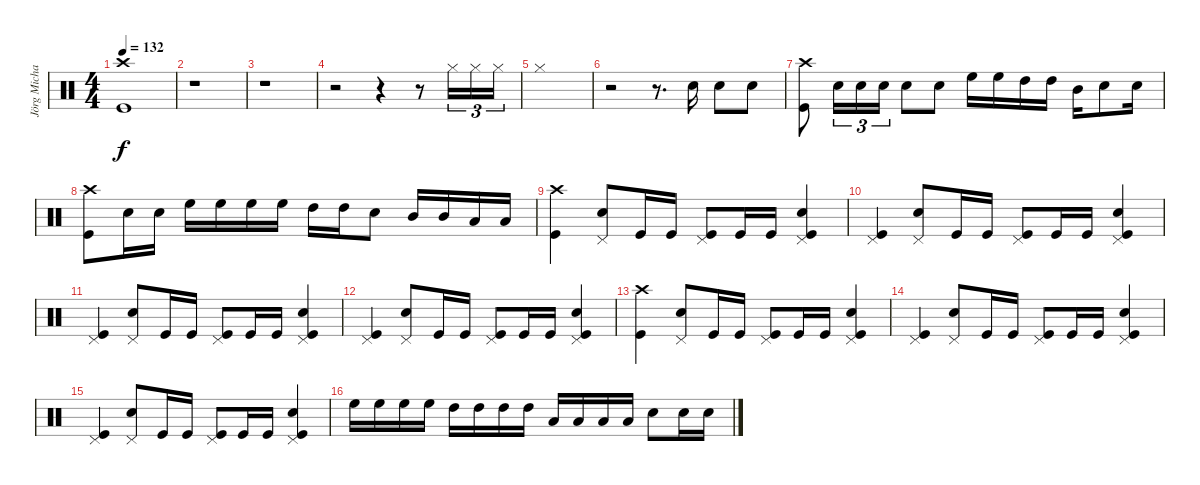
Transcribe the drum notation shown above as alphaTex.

\track ("Jörg Michael (Drums)" "Jörg Micha") {instrument percussion}
\staff {score}
\articulation defaults
\ts (4 4)
\tempo 132
\clef neutral
\ks c
("Crash high (hit)" "Kick (hit)").1{dy f} |
r.1 |
r.1 |
r.2 r.4 r.8 "Hi-Hat (closed)".16{tu (3 2)} "Hi-Hat (closed)".16{tu (3 2)} "Hi-Hat (closed)".16{tu (3 2)} |
"Hi-Hat (closed)".1 |
r.2 r.8{d} "Snare (hit) 2".16 "Snare (hit) 2".8 "Snare (hit) 2".8 |
("Crash high (hit)" "Kick (hit)").8 "Snare (hit) 2".16{tu (3 2)} "Snare (hit) 2".16{tu (3 2)} "Snare (hit) 2".16{tu (3 2)} "Snare (hit) 2".8 "Snare (hit) 2".8 "High Floor Tom (hit)".16 "High Floor Tom (hit)".16 "High Tom (hit)".16 "High Tom (hit)".16 "Mid Tom (hit)".16 "Snare (hit) 2".8 "Snare (hit) 2".16 |
("Crash high (hit)" "Kick (hit)").8 "Snare (hit) 2".16 "Snare (hit) 2".16 "High Floor Tom (hit)".16 "High Floor Tom (hit)".16 "High Floor Tom (hit)".16 "High Floor Tom (hit)".16 "High Tom (hit)".16 "High Tom (hit)".16 "Snare (hit) 2".8 "Mid Tom (hit)".16 "Mid Tom (hit)".16 "Low Tom (hit)".16 "Low Tom (hit)".16 |
("Crash high (hit)" "Kick (hit)").4 ("Pedal Hi-Hat (hit)" "Snare (hit) 2").8 "Kick (hit)".16 "Kick (hit)".16 ("Pedal Hi-Hat (hit)" "Kick (hit)").8 "Kick (hit)".16 "Kick (hit)".16 ("Pedal Hi-Hat (hit)" "Kick (hit)" "Snare (hit) 2").4 |
("Pedal Hi-Hat (hit)" "Kick (hit)").4 ("Pedal Hi-Hat (hit)" "Snare (hit) 2").8 "Kick (hit)".16 "Kick (hit)".16 ("Pedal Hi-Hat (hit)" "Kick (hit)").8 "Kick (hit)".16 "Kick (hit)".16 ("Pedal Hi-Hat (hit)" "Kick (hit)" "Snare (hit) 2").4 |
("Pedal Hi-Hat (hit)" "Kick (hit)").4 ("Pedal Hi-Hat (hit)" "Snare (hit) 2").8 "Kick (hit)".16 "Kick (hit)".16 ("Pedal Hi-Hat (hit)" "Kick (hit)").8 "Kick (hit)".16 "Kick (hit)".16 ("Pedal Hi-Hat (hit)" "Kick (hit)" "Snare (hit) 2").4 |
("Pedal Hi-Hat (hit)" "Kick (hit)").4 ("Pedal Hi-Hat (hit)" "Snare (hit) 2").8 "Kick (hit)".16 "Kick (hit)".16 ("Pedal Hi-Hat (hit)" "Kick (hit)").8 "Kick (hit)".16 "Kick (hit)".16 ("Pedal Hi-Hat (hit)" "Kick (hit)" "Snare (hit) 2").4 |
("Crash high (hit)" "Kick (hit)").4 ("Pedal Hi-Hat (hit)" "Snare (hit) 2").8 "Kick (hit)".16 "Kick (hit)".16 ("Pedal Hi-Hat (hit)" "Kick (hit)").8 "Kick (hit)".16 "Kick (hit)".16 ("Pedal Hi-Hat (hit)" "Kick (hit)" "Snare (hit) 2").4 |
("Pedal Hi-Hat (hit)" "Kick (hit)").4 ("Pedal Hi-Hat (hit)" "Snare (hit) 2").8 "Kick (hit)".16 "Kick (hit)".16 ("Pedal Hi-Hat (hit)" "Kick (hit)").8 "Kick (hit)".16 "Kick (hit)".16 ("Pedal Hi-Hat (hit)" "Kick (hit)" "Snare (hit) 2").4 |
("Pedal Hi-Hat (hit)" "Kick (hit)").4 ("Pedal Hi-Hat (hit)" "Snare (hit) 2").8 "Kick (hit)".16 "Kick (hit)".16 ("Pedal Hi-Hat (hit)" "Kick (hit)").8 "Kick (hit)".16 "Kick (hit)".16 ("Pedal Hi-Hat (hit)" "Kick (hit)" "Snare (hit) 2").4 |
"High Floor Tom (hit)".16 "High Floor Tom (hit)".16 "High Floor Tom (hit)".16 "High Floor Tom (hit)".16 "High Tom (hit)".16 "High Tom (hit)".16 "High Tom (hit)".16 "High Tom (hit)".16 "Low Tom (hit)".16 "Low Tom (hit)".16 "Low Tom (hit)".16 "Low Tom (hit)".16 "Snare (hit) 2".8 "Snare (hit) 2".16 "Snare (hit) 2".16
